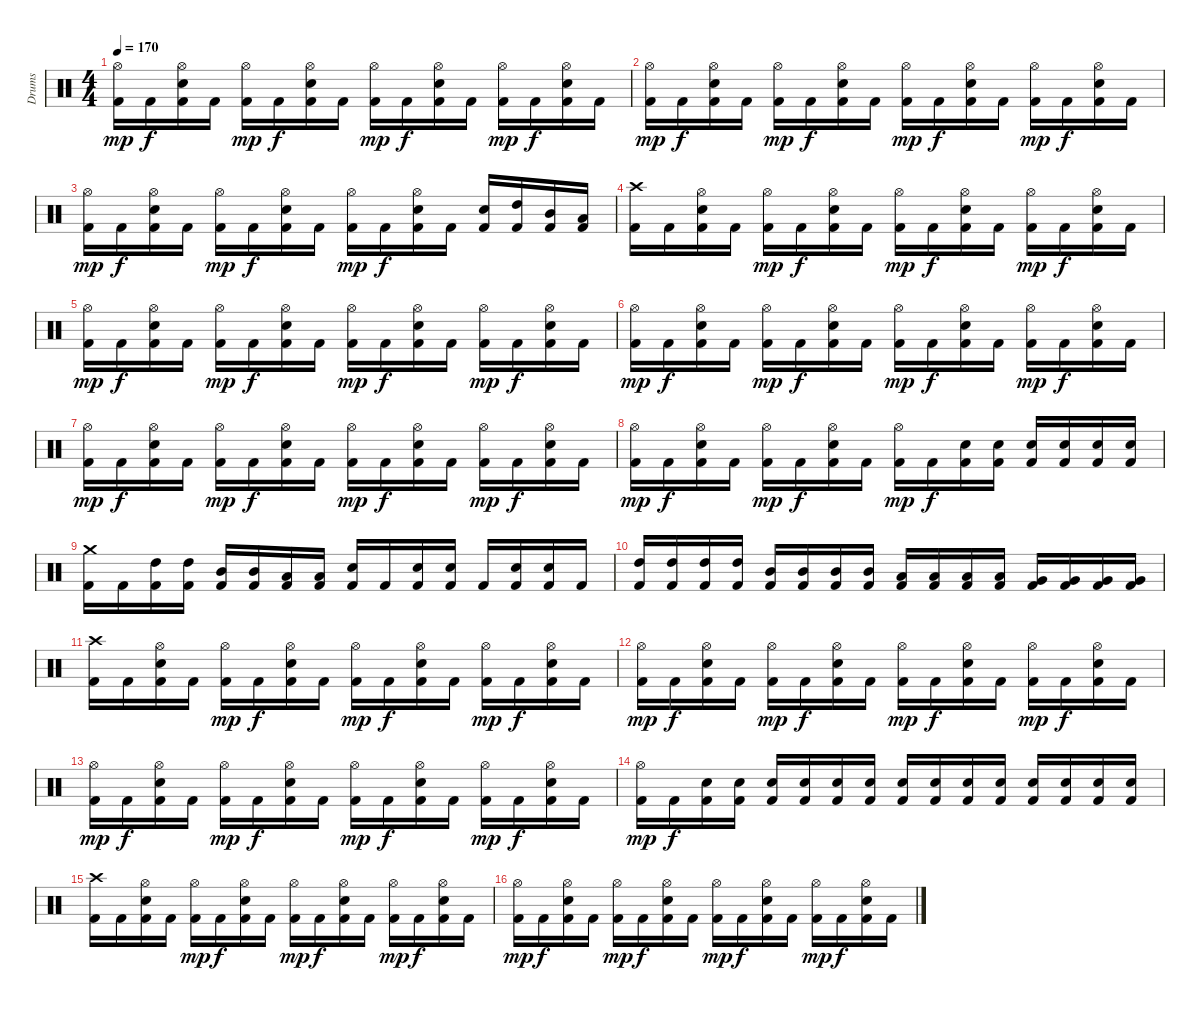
\track ("Drums" "Drums") {instrument percussion}
\staff {score}
\articulation defaults
\ts (4 4)
\tempo 170
\clef neutral
\ks c
("Kick (hit) 2" "Hi-Hat (open)").16{dy mp} "Kick (hit) 2".16{dy f} ("Kick (hit) 2" "Electric Snare (hit)" "Hi-Hat (open)").16 "Kick (hit) 2".16 ("Kick (hit) 2" "Hi-Hat (open)").16{dy mp} "Kick (hit) 2".16{dy f} ("Kick (hit) 2" "Electric Snare (hit)" "Hi-Hat (open)").16 "Kick (hit) 2".16 ("Kick (hit) 2" "Hi-Hat (open)").16{dy mp} "Kick (hit) 2".16{dy f} ("Kick (hit) 2" "Electric Snare (hit)" "Hi-Hat (open)").16 "Kick (hit) 2".16 ("Kick (hit) 2" "Hi-Hat (open)").16{dy mp} "Kick (hit) 2".16{dy f} ("Kick (hit) 2" "Electric Snare (hit)" "Hi-Hat (open)").16 "Kick (hit) 2".16 |
("Kick (hit) 2" "Hi-Hat (open)").16{dy mp} "Kick (hit) 2".16{dy f} ("Kick (hit) 2" "Electric Snare (hit)" "Hi-Hat (open)").16 "Kick (hit) 2".16 ("Kick (hit) 2" "Hi-Hat (open)").16{dy mp} "Kick (hit) 2".16{dy f} ("Kick (hit) 2" "Electric Snare (hit)" "Hi-Hat (open)").16 "Kick (hit) 2".16 ("Kick (hit) 2" "Hi-Hat (open)").16{dy mp} "Kick (hit) 2".16{dy f} ("Kick (hit) 2" "Electric Snare (hit)" "Hi-Hat (open)").16 "Kick (hit) 2".16 ("Kick (hit) 2" "Hi-Hat (open)").16{dy mp} "Kick (hit) 2".16{dy f} ("Kick (hit) 2" "Electric Snare (hit)" "Hi-Hat (open)").16 "Kick (hit) 2".16 |
("Kick (hit) 2" "Hi-Hat (open)").16{dy mp} "Kick (hit) 2".16{dy f} ("Kick (hit) 2" "Electric Snare (hit)" "Hi-Hat (open)").16 "Kick (hit) 2".16 ("Kick (hit) 2" "Hi-Hat (open)").16{dy mp} "Kick (hit) 2".16{dy f} ("Kick (hit) 2" "Electric Snare (hit)" "Hi-Hat (open)").16 "Kick (hit) 2".16 ("Kick (hit) 2" "Hi-Hat (open)").16{dy mp} "Kick (hit) 2".16{dy f} ("Kick (hit) 2" "Electric Snare (hit)" "Hi-Hat (open)").16 "Kick (hit) 2".16 ("Kick (hit) 2" "Electric Snare (hit)").16 ("Kick (hit) 2" "High Tom (hit)").16 ("Kick (hit) 2" "Mid Tom (hit)").16 ("Kick (hit) 2" "Low Tom (hit)").16 |
("Kick (hit) 2" "Crash high (hit)").16 "Kick (hit) 2".16 ("Kick (hit) 2" "Electric Snare (hit)" "Hi-Hat (open)").16 "Kick (hit) 2".16 ("Kick (hit) 2" "Hi-Hat (open)").16{dy mp} "Kick (hit) 2".16{dy f} ("Kick (hit) 2" "Electric Snare (hit)" "Hi-Hat (open)").16 "Kick (hit) 2".16 ("Kick (hit) 2" "Hi-Hat (open)").16{dy mp} "Kick (hit) 2".16{dy f} ("Kick (hit) 2" "Electric Snare (hit)" "Hi-Hat (open)").16 "Kick (hit) 2".16 ("Kick (hit) 2" "Hi-Hat (open)").16{dy mp} "Kick (hit) 2".16{dy f} ("Kick (hit) 2" "Electric Snare (hit)" "Hi-Hat (open)").16 "Kick (hit) 2".16 |
("Kick (hit) 2" "Hi-Hat (open)").16{dy mp} "Kick (hit) 2".16{dy f} ("Kick (hit) 2" "Electric Snare (hit)" "Hi-Hat (open)").16 "Kick (hit) 2".16 ("Kick (hit) 2" "Hi-Hat (open)").16{dy mp} "Kick (hit) 2".16{dy f} ("Kick (hit) 2" "Electric Snare (hit)" "Hi-Hat (open)").16 "Kick (hit) 2".16 ("Kick (hit) 2" "Hi-Hat (open)").16{dy mp} "Kick (hit) 2".16{dy f} ("Kick (hit) 2" "Electric Snare (hit)" "Hi-Hat (open)").16 "Kick (hit) 2".16 ("Kick (hit) 2" "Hi-Hat (open)").16{dy mp} "Kick (hit) 2".16{dy f} ("Kick (hit) 2" "Electric Snare (hit)" "Hi-Hat (open)").16 "Kick (hit) 2".16 |
("Kick (hit) 2" "Hi-Hat (open)").16{dy mp} "Kick (hit) 2".16{dy f} ("Kick (hit) 2" "Electric Snare (hit)" "Hi-Hat (open)").16 "Kick (hit) 2".16 ("Kick (hit) 2" "Hi-Hat (open)").16{dy mp} "Kick (hit) 2".16{dy f} ("Kick (hit) 2" "Electric Snare (hit)" "Hi-Hat (open)").16 "Kick (hit) 2".16 ("Kick (hit) 2" "Hi-Hat (open)").16{dy mp} "Kick (hit) 2".16{dy f} ("Kick (hit) 2" "Electric Snare (hit)" "Hi-Hat (open)").16 "Kick (hit) 2".16 ("Kick (hit) 2" "Hi-Hat (open)").16{dy mp} "Kick (hit) 2".16{dy f} ("Kick (hit) 2" "Electric Snare (hit)" "Hi-Hat (open)").16 "Kick (hit) 2".16 |
("Kick (hit) 2" "Hi-Hat (open)").16{dy mp} "Kick (hit) 2".16{dy f} ("Kick (hit) 2" "Electric Snare (hit)" "Hi-Hat (open)").16 "Kick (hit) 2".16 ("Kick (hit) 2" "Hi-Hat (open)").16{dy mp} "Kick (hit) 2".16{dy f} ("Kick (hit) 2" "Electric Snare (hit)" "Hi-Hat (open)").16 "Kick (hit) 2".16 ("Kick (hit) 2" "Hi-Hat (open)").16{dy mp} "Kick (hit) 2".16{dy f} ("Kick (hit) 2" "Electric Snare (hit)" "Hi-Hat (open)").16 "Kick (hit) 2".16 ("Kick (hit) 2" "Hi-Hat (open)").16{dy mp} "Kick (hit) 2".16{dy f} ("Kick (hit) 2" "Electric Snare (hit)" "Hi-Hat (open)").16 "Kick (hit) 2".16 |
("Kick (hit) 2" "Hi-Hat (open)").16{dy mp} "Kick (hit) 2".16{dy f} ("Kick (hit) 2" "Electric Snare (hit)" "Hi-Hat (open)").16 "Kick (hit) 2".16 ("Kick (hit) 2" "Hi-Hat (open)").16{dy mp} "Kick (hit) 2".16{dy f} ("Kick (hit) 2" "Electric Snare (hit)" "Hi-Hat (open)").16 "Kick (hit) 2".16 ("Kick (hit) 2" "Hi-Hat (open)").16{dy mp} "Kick (hit) 2".16{dy f} ("Kick (hit) 2" "Electric Snare (hit)").16 ("Kick (hit) 2" "Electric Snare (hit)").16 ("Kick (hit) 2" "Electric Snare (hit)").16 ("Kick (hit) 2" "Electric Snare (hit)").16 ("Kick (hit) 2" "Electric Snare (hit)").16 ("Kick (hit) 2" "Electric Snare (hit)").16 |
("Kick (hit) 2" "Crash medium (hit)").16 "Kick (hit) 2".16 ("Kick (hit) 2" "High Tom (hit)").16 ("Kick (hit) 2" "High Tom (hit)").16 ("Kick (hit) 2" "Mid Tom (hit)").16 ("Kick (hit) 2" "Mid Tom (hit)").16 ("Kick (hit) 2" "Low Tom (hit)").16 ("Kick (hit) 2" "Low Tom (hit)").16 ("Kick (hit) 2" "Electric Snare (hit)").16 "Kick (hit) 2".16 ("Kick (hit) 2" "Electric Snare (hit)").16 ("Kick (hit) 2" "Electric Snare (hit)").16 "Kick (hit) 2".16 ("Kick (hit) 2" "Electric Snare (hit)").16 ("Kick (hit) 2" "Electric Snare (hit)").16 "Kick (hit) 2".16 |
("Kick (hit) 2" "High Tom (hit)").16 ("Kick (hit) 2" "High Tom (hit)").16 ("Kick (hit) 2" "High Tom (hit)").16 ("Kick (hit) 2" "High Tom (hit)").16 ("Kick (hit) 2" "Mid Tom (hit)").16 ("Kick (hit) 2" "Mid Tom (hit)").16 ("Kick (hit) 2" "Mid Tom (hit)").16 ("Kick (hit) 2" "Mid Tom (hit)").16 ("Kick (hit) 2" "Low Tom (hit)").16 ("Kick (hit) 2" "Low Tom (hit)").16 ("Kick (hit) 2" "Low Tom (hit)").16 ("Kick (hit) 2" "Low Tom (hit)").16 ("Kick (hit) 2" "Very Low Tom (hit)").16 ("Kick (hit) 2" "Very Low Tom (hit)").16 ("Kick (hit) 2" "Very Low Tom (hit)").16 ("Kick (hit) 2" "Very Low Tom (hit)").16 |
\section ("" "")
("Kick (hit) 2" "Crash high (hit)").16 "Kick (hit) 2".16 ("Kick (hit) 2" "Electric Snare (hit)" "Hi-Hat (open)").16 "Kick (hit) 2".16 ("Kick (hit) 2" "Hi-Hat (open)").16{dy mp} "Kick (hit) 2".16{dy f} ("Kick (hit) 2" "Electric Snare (hit)" "Hi-Hat (open)").16 "Kick (hit) 2".16 ("Kick (hit) 2" "Hi-Hat (open)").16{dy mp} "Kick (hit) 2".16{dy f} ("Kick (hit) 2" "Electric Snare (hit)" "Hi-Hat (open)").16 "Kick (hit) 2".16 ("Kick (hit) 2" "Hi-Hat (open)").16{dy mp} "Kick (hit) 2".16{dy f} ("Kick (hit) 2" "Electric Snare (hit)" "Hi-Hat (open)").16 "Kick (hit) 2".16 |
("Kick (hit) 2" "Hi-Hat (open)").16{dy mp} "Kick (hit) 2".16{dy f} ("Kick (hit) 2" "Electric Snare (hit)" "Hi-Hat (open)").16 "Kick (hit) 2".16 ("Kick (hit) 2" "Hi-Hat (open)").16{dy mp} "Kick (hit) 2".16{dy f} ("Kick (hit) 2" "Electric Snare (hit)" "Hi-Hat (open)").16 "Kick (hit) 2".16 ("Kick (hit) 2" "Hi-Hat (open)").16{dy mp} "Kick (hit) 2".16{dy f} ("Kick (hit) 2" "Electric Snare (hit)" "Hi-Hat (open)").16 "Kick (hit) 2".16 ("Kick (hit) 2" "Hi-Hat (open)").16{dy mp} "Kick (hit) 2".16{dy f} ("Kick (hit) 2" "Electric Snare (hit)" "Hi-Hat (open)").16 "Kick (hit) 2".16 |
("Kick (hit) 2" "Hi-Hat (open)").16{dy mp} "Kick (hit) 2".16{dy f} ("Kick (hit) 2" "Electric Snare (hit)" "Hi-Hat (open)").16 "Kick (hit) 2".16 ("Kick (hit) 2" "Hi-Hat (open)").16{dy mp} "Kick (hit) 2".16{dy f} ("Kick (hit) 2" "Electric Snare (hit)" "Hi-Hat (open)").16 "Kick (hit) 2".16 ("Kick (hit) 2" "Hi-Hat (open)").16{dy mp} "Kick (hit) 2".16{dy f} ("Kick (hit) 2" "Electric Snare (hit)" "Hi-Hat (open)").16 "Kick (hit) 2".16 ("Kick (hit) 2" "Hi-Hat (open)").16{dy mp} "Kick (hit) 2".16{dy f} ("Kick (hit) 2" "Electric Snare (hit)" "Hi-Hat (open)").16 "Kick (hit) 2".16 |
("Kick (hit) 2" "Hi-Hat (open)").16{dy mp} "Kick (hit) 2".16{dy f} ("Kick (hit) 2" "Electric Snare (hit)").16 ("Kick (hit) 2" "Electric Snare (hit)").16 ("Kick (hit) 2" "Electric Snare (hit)").16 ("Kick (hit) 2" "Electric Snare (hit)").16 ("Kick (hit) 2" "Electric Snare (hit)").16 ("Kick (hit) 2" "Electric Snare (hit)").16 ("Kick (hit) 2" "Electric Snare (hit)").16 ("Kick (hit) 2" "Electric Snare (hit)").16 ("Kick (hit) 2" "Electric Snare (hit)").16 ("Kick (hit) 2" "Electric Snare (hit)").16 ("Kick (hit) 2" "Electric Snare (hit)").16 ("Kick (hit) 2" "Electric Snare (hit)").16 ("Kick (hit) 2" "Electric Snare (hit)").16 ("Kick (hit) 2" "Electric Snare (hit)").16 |
("Kick (hit) 2" "Crash high (hit)").16 "Kick (hit) 2".16 ("Kick (hit) 2" "Electric Snare (hit)" "Hi-Hat (open)").16 "Kick (hit) 2".16 ("Kick (hit) 2" "Hi-Hat (open)").16{dy mp} "Kick (hit) 2".16{dy f} ("Kick (hit) 2" "Electric Snare (hit)" "Hi-Hat (open)").16 "Kick (hit) 2".16 ("Kick (hit) 2" "Hi-Hat (open)").16{dy mp} "Kick (hit) 2".16{dy f} ("Kick (hit) 2" "Electric Snare (hit)" "Hi-Hat (open)").16 "Kick (hit) 2".16 ("Kick (hit) 2" "Hi-Hat (open)").16{dy mp} "Kick (hit) 2".16{dy f} ("Kick (hit) 2" "Electric Snare (hit)" "Hi-Hat (open)").16 "Kick (hit) 2".16 |
("Kick (hit) 2" "Hi-Hat (open)").16{dy mp} "Kick (hit) 2".16{dy f} ("Kick (hit) 2" "Electric Snare (hit)" "Hi-Hat (open)").16 "Kick (hit) 2".16 ("Kick (hit) 2" "Hi-Hat (open)").16{dy mp} "Kick (hit) 2".16{dy f} ("Kick (hit) 2" "Electric Snare (hit)" "Hi-Hat (open)").16 "Kick (hit) 2".16 ("Kick (hit) 2" "Hi-Hat (open)").16{dy mp} "Kick (hit) 2".16{dy f} ("Kick (hit) 2" "Electric Snare (hit)" "Hi-Hat (open)").16 "Kick (hit) 2".16 ("Kick (hit) 2" "Hi-Hat (open)").16{dy mp} "Kick (hit) 2".16{dy f} ("Kick (hit) 2" "Electric Snare (hit)" "Hi-Hat (open)").16 "Kick (hit) 2".16
